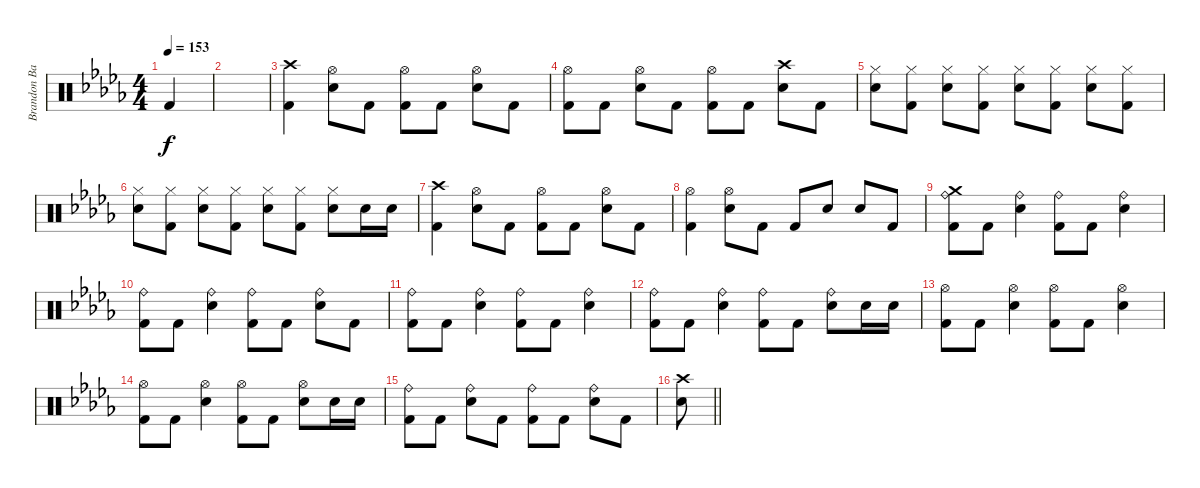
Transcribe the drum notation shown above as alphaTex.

\track ("Brandon Barnes" "Brandon Ba") {instrument percussion}
\staff {score}
\articulation defaults
\ts (4 4)
\tempo 153
\clef neutral
\ks db "Kick (hit) 2".4{dy f}
|
|
("Crash high (hit)" "Kick (hit) 2").4 ("Hi-Hat (open)" "Snare (hit) 2").8 "Kick (hit) 2".8 ("Hi-Hat (open)" "Kick (hit) 2").8 "Kick (hit) 2".8 ("Hi-Hat (open)" "Snare (hit) 2").8 "Kick (hit) 2".8 |
("Hi-Hat (open)" "Kick (hit) 2").8 "Kick (hit) 2".8 ("Hi-Hat (open)" "Snare (hit) 2").8 "Kick (hit) 2".8 ("Hi-Hat (open)" "Kick (hit) 2").8 "Kick (hit) 2".8 ("Crash high (hit)" "Snare (hit) 2").8 "Kick (hit) 2".8 |
("Hi-Hat (closed)" "Snare (hit) 2").8 ("Hi-Hat (closed)" "Kick (hit) 2").8 ("Hi-Hat (closed)" "Snare (hit) 2").8 ("Hi-Hat (closed)" "Kick (hit) 2").8 ("Hi-Hat (closed)" "Snare (hit) 2").8 ("Hi-Hat (closed)" "Kick (hit) 2").8 ("Hi-Hat (closed)" "Snare (hit) 2").8 ("Hi-Hat (closed)" "Kick (hit) 2").8 |
("Hi-Hat (closed)" "Snare (hit) 2").8 ("Hi-Hat (closed)" "Kick (hit) 2").8 ("Hi-Hat (closed)" "Snare (hit) 2").8 ("Hi-Hat (closed)" "Kick (hit) 2").8 ("Hi-Hat (closed)" "Snare (hit) 2").8 ("Hi-Hat (closed)" "Kick (hit) 2").8 ("Hi-Hat (closed)" "Snare (hit) 2").8 "Snare (hit) 2".16 "Snare (hit) 2".16 |
("Crash high (hit)" "Kick (hit) 2").4 ("Hi-Hat (open)" "Snare (hit) 2").8 "Kick (hit) 2".8 ("Hi-Hat (open)" "Kick (hit) 2").8 "Kick (hit) 2".8 ("Hi-Hat (open)" "Snare (hit) 2").8 "Kick (hit) 2".8 |
("Hi-Hat (open)" "Kick (hit) 2").4 ("Hi-Hat (open)" "Snare (hit) 2").8 "Kick (hit) 2".8 "Kick (hit) 2".8 "Snare (hit) 2".8 "Snare (hit) 2".8 "Kick (hit) 2".8 |
("Ride (bell)" "Crash medium (hit)" "Kick (hit) 2").8 "Kick (hit) 2".8 ("Ride (bell)" "Snare (hit) 2").4 ("Ride (bell)" "Kick (hit) 2").8 "Kick (hit) 2".8 ("Ride (bell)" "Snare (hit) 2").4 |
("Ride (bell)" "Kick (hit) 2").8 "Kick (hit) 2".8 ("Ride (bell)" "Snare (hit) 2").4 ("Ride (bell)" "Kick (hit) 2").8 "Kick (hit) 2".8 ("Ride (bell)" "Snare (hit) 2").8 "Kick (hit) 2".8 |
("Ride (bell)" "Kick (hit) 2").8 "Kick (hit) 2".8 ("Ride (bell)" "Snare (hit) 2").4 ("Ride (bell)" "Kick (hit) 2").8 "Kick (hit) 2".8 ("Ride (bell)" "Snare (hit) 2").4 |
("Ride (bell)" "Kick (hit) 2").8 "Kick (hit) 2".8 ("Ride (bell)" "Snare (hit) 2").4 ("Ride (bell)" "Kick (hit) 2").8 "Kick (hit) 2".8 ("Ride (bell)" "Snare (hit) 2").8 "Snare (hit) 2".16 "Snare (hit) 2".16 |
("Hi-Hat (open)" "Kick (hit) 2").8 "Kick (hit) 2".8 ("Hi-Hat (open)" "Snare (hit) 2").4 ("Hi-Hat (open)" "Kick (hit) 2").8 "Kick (hit) 2".8 ("Hi-Hat (open)" "Snare (hit) 2").4 |
("Hi-Hat (open)" "Kick (hit) 2").8 "Kick (hit) 2".8 ("Hi-Hat (open)" "Snare (hit) 2").4 ("Hi-Hat (open)" "Kick (hit) 2").8 "Kick (hit) 2".8 ("Hi-Hat (open)" "Snare (hit) 2").8 "Snare (hit) 2".16 "Snare (hit) 2".16 |
("Ride (bell)" "Kick (hit) 2").8 "Kick (hit) 2".8 ("Ride (bell)" "Snare (hit) 2").8 "Kick (hit) 2".8 ("Ride (bell)" "Kick (hit) 2").8 "Kick (hit) 2".8 ("Ride (bell)" "Snare (hit) 2").8 "Kick (hit) 2".8 |
\barLineRight lightlight
("Crash high (hit)" "Snare (hit) 2").8
